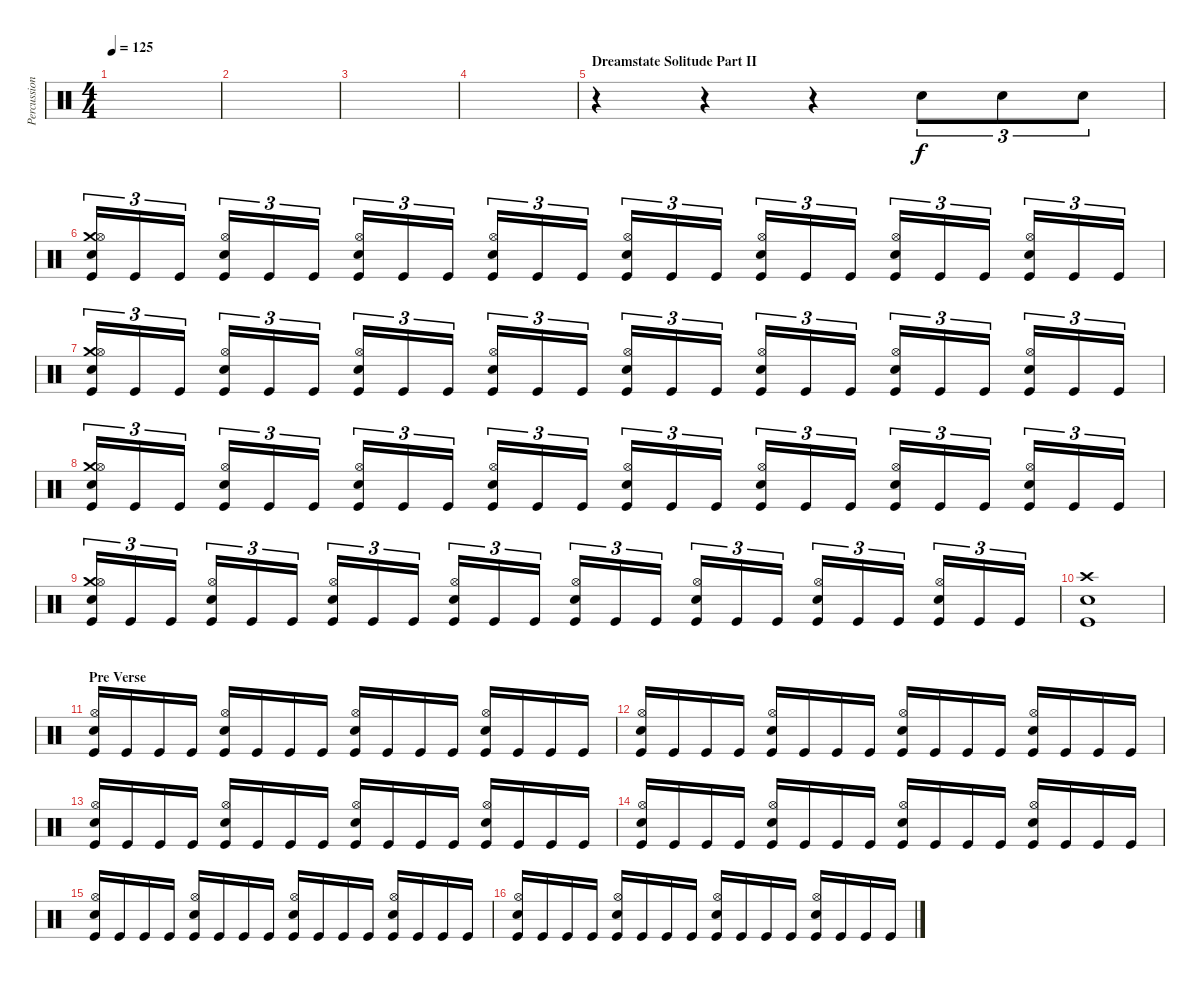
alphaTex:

\track ("Percussion" "Percussion") {instrument percussion}
\staff {score}
\articulation defaults
\ts (4 4)
\tempo 125
\clef neutral
\ks c
|
|
|
|
\section ("" "Dreamstate Solitude Part II")
r.4 r.4 r.4 "Electric Snare (hit)".8{tu (3 2)} "Electric Snare (hit)".8{tu (3 2)} "Electric Snare (hit)".8{tu (3 2)} |
("Crash medium (hit)" "Electric Snare (hit)" "Hi-Hat (open)" "Kick (hit)").16{tu (3 2)} "Kick (hit)".16{tu (3 2)} "Kick (hit)".16{tu (3 2)} ("Electric Snare (hit)" "Hi-Hat (open)" "Kick (hit)").16{tu (3 2)} "Kick (hit)".16{tu (3 2)} "Kick (hit)".16{tu (3 2)} ("Electric Snare (hit)" "Hi-Hat (open)" "Kick (hit)").16{tu (3 2)} "Kick (hit)".16{tu (3 2)} "Kick (hit)".16{tu (3 2)} ("Electric Snare (hit)" "Hi-Hat (open)" "Kick (hit)").16{tu (3 2)} "Kick (hit)".16{tu (3 2)} "Kick (hit)".16{tu (3 2)} ("Electric Snare (hit)" "Hi-Hat (open)" "Kick (hit)").16{tu (3 2)} "Kick (hit)".16{tu (3 2)} "Kick (hit)".16{tu (3 2)} ("Electric Snare (hit)" "Hi-Hat (open)" "Kick (hit)").16{tu (3 2)} "Kick (hit)".16{tu (3 2)} "Kick (hit)".16{tu (3 2)} ("Electric Snare (hit)" "Hi-Hat (open)" "Kick (hit)").16{tu (3 2)} "Kick (hit)".16{tu (3 2)} "Kick (hit)".16{tu (3 2)} ("Electric Snare (hit)" "Hi-Hat (open)" "Kick (hit)").16{tu (3 2)} "Kick (hit)".16{tu (3 2)} "Kick (hit)".16{tu (3 2)} |
("Crash medium (hit)" "Electric Snare (hit)" "Hi-Hat (open)" "Kick (hit)").16{tu (3 2)} "Kick (hit)".16{tu (3 2)} "Kick (hit)".16{tu (3 2)} ("Electric Snare (hit)" "Hi-Hat (open)" "Kick (hit)").16{tu (3 2)} "Kick (hit)".16{tu (3 2)} "Kick (hit)".16{tu (3 2)} ("Electric Snare (hit)" "Hi-Hat (open)" "Kick (hit)").16{tu (3 2)} "Kick (hit)".16{tu (3 2)} "Kick (hit)".16{tu (3 2)} ("Electric Snare (hit)" "Hi-Hat (open)" "Kick (hit)").16{tu (3 2)} "Kick (hit)".16{tu (3 2)} "Kick (hit)".16{tu (3 2)} ("Electric Snare (hit)" "Hi-Hat (open)" "Kick (hit)").16{tu (3 2)} "Kick (hit)".16{tu (3 2)} "Kick (hit)".16{tu (3 2)} ("Electric Snare (hit)" "Hi-Hat (open)" "Kick (hit)").16{tu (3 2)} "Kick (hit)".16{tu (3 2)} "Kick (hit)".16{tu (3 2)} ("Electric Snare (hit)" "Hi-Hat (open)" "Kick (hit)").16{tu (3 2)} "Kick (hit)".16{tu (3 2)} "Kick (hit)".16{tu (3 2)} ("Electric Snare (hit)" "Hi-Hat (open)" "Kick (hit)").16{tu (3 2)} "Kick (hit)".16{tu (3 2)} "Kick (hit)".16{tu (3 2)} |
("Crash medium (hit)" "Electric Snare (hit)" "Hi-Hat (open)" "Kick (hit)").16{tu (3 2)} "Kick (hit)".16{tu (3 2)} "Kick (hit)".16{tu (3 2)} ("Electric Snare (hit)" "Hi-Hat (open)" "Kick (hit)").16{tu (3 2)} "Kick (hit)".16{tu (3 2)} "Kick (hit)".16{tu (3 2)} ("Electric Snare (hit)" "Hi-Hat (open)" "Kick (hit)").16{tu (3 2)} "Kick (hit)".16{tu (3 2)} "Kick (hit)".16{tu (3 2)} ("Electric Snare (hit)" "Hi-Hat (open)" "Kick (hit)").16{tu (3 2)} "Kick (hit)".16{tu (3 2)} "Kick (hit)".16{tu (3 2)} ("Electric Snare (hit)" "Hi-Hat (open)" "Kick (hit)").16{tu (3 2)} "Kick (hit)".16{tu (3 2)} "Kick (hit)".16{tu (3 2)} ("Electric Snare (hit)" "Hi-Hat (open)" "Kick (hit)").16{tu (3 2)} "Kick (hit)".16{tu (3 2)} "Kick (hit)".16{tu (3 2)} ("Electric Snare (hit)" "Hi-Hat (open)" "Kick (hit)").16{tu (3 2)} "Kick (hit)".16{tu (3 2)} "Kick (hit)".16{tu (3 2)} ("Electric Snare (hit)" "Hi-Hat (open)" "Kick (hit)").16{tu (3 2)} "Kick (hit)".16{tu (3 2)} "Kick (hit)".16{tu (3 2)} |
("Crash medium (hit)" "Electric Snare (hit)" "Hi-Hat (open)" "Kick (hit)").16{tu (3 2)} "Kick (hit)".16{tu (3 2)} "Kick (hit)".16{tu (3 2)} ("Electric Snare (hit)" "Hi-Hat (open)" "Kick (hit)").16{tu (3 2)} "Kick (hit)".16{tu (3 2)} "Kick (hit)".16{tu (3 2)} ("Electric Snare (hit)" "Hi-Hat (open)" "Kick (hit)").16{tu (3 2)} "Kick (hit)".16{tu (3 2)} "Kick (hit)".16{tu (3 2)} ("Electric Snare (hit)" "Hi-Hat (open)" "Kick (hit)").16{tu (3 2)} "Kick (hit)".16{tu (3 2)} "Kick (hit)".16{tu (3 2)} ("Electric Snare (hit)" "Hi-Hat (open)" "Kick (hit)").16{tu (3 2)} "Kick (hit)".16{tu (3 2)} "Kick (hit)".16{tu (3 2)} ("Electric Snare (hit)" "Hi-Hat (open)" "Kick (hit)").16{tu (3 2)} "Kick (hit)".16{tu (3 2)} "Kick (hit)".16{tu (3 2)} ("Electric Snare (hit)" "Hi-Hat (open)" "Kick (hit)").16{tu (3 2)} "Kick (hit)".16{tu (3 2)} "Kick (hit)".16{tu (3 2)} ("Electric Snare (hit)" "Hi-Hat (open)" "Kick (hit)").16{tu (3 2)} "Kick (hit)".16{tu (3 2)} "Kick (hit)".16{tu (3 2)} |
("Crash high (hit)" "Electric Snare (hit)" "Kick (hit)").1 |
\section ("" "Pre Verse")
("Kick (hit)" "Electric Snare (hit)" "Hi-Hat (open)").16 "Kick (hit)".16 "Kick (hit)".16 "Kick (hit)".16 ("Kick (hit)" "Electric Snare (hit)" "Hi-Hat (open)").16 "Kick (hit)".16 "Kick (hit)".16 "Kick (hit)".16 ("Kick (hit)" "Electric Snare (hit)" "Hi-Hat (open)").16 "Kick (hit)".16 "Kick (hit)".16 "Kick (hit)".16 ("Kick (hit)" "Electric Snare (hit)" "Hi-Hat (open)").16 "Kick (hit)".16 "Kick (hit)".16 "Kick (hit)".16 |
("Kick (hit)" "Electric Snare (hit)" "Hi-Hat (open)").16 "Kick (hit)".16 "Kick (hit)".16 "Kick (hit)".16 ("Kick (hit)" "Electric Snare (hit)" "Hi-Hat (open)").16 "Kick (hit)".16 "Kick (hit)".16 "Kick (hit)".16 ("Kick (hit)" "Electric Snare (hit)" "Hi-Hat (open)").16 "Kick (hit)".16 "Kick (hit)".16 "Kick (hit)".16 ("Kick (hit)" "Electric Snare (hit)" "Hi-Hat (open)").16 "Kick (hit)".16 "Kick (hit)".16 "Kick (hit)".16 |
("Kick (hit)" "Electric Snare (hit)" "Hi-Hat (open)").16 "Kick (hit)".16 "Kick (hit)".16 "Kick (hit)".16 ("Kick (hit)" "Electric Snare (hit)" "Hi-Hat (open)").16 "Kick (hit)".16 "Kick (hit)".16 "Kick (hit)".16 ("Kick (hit)" "Electric Snare (hit)" "Hi-Hat (open)").16 "Kick (hit)".16 "Kick (hit)".16 "Kick (hit)".16 ("Kick (hit)" "Electric Snare (hit)" "Hi-Hat (open)").16 "Kick (hit)".16 "Kick (hit)".16 "Kick (hit)".16 |
("Kick (hit)" "Electric Snare (hit)" "Hi-Hat (open)").16 "Kick (hit)".16 "Kick (hit)".16 "Kick (hit)".16 ("Kick (hit)" "Electric Snare (hit)" "Hi-Hat (open)").16 "Kick (hit)".16 "Kick (hit)".16 "Kick (hit)".16 ("Kick (hit)" "Electric Snare (hit)" "Hi-Hat (open)").16 "Kick (hit)".16 "Kick (hit)".16 "Kick (hit)".16 ("Kick (hit)" "Electric Snare (hit)" "Hi-Hat (open)").16 "Kick (hit)".16 "Kick (hit)".16 "Kick (hit)".16 |
("Kick (hit)" "Electric Snare (hit)" "Hi-Hat (open)").16 "Kick (hit)".16 "Kick (hit)".16 "Kick (hit)".16 ("Kick (hit)" "Electric Snare (hit)" "Hi-Hat (open)").16 "Kick (hit)".16 "Kick (hit)".16 "Kick (hit)".16 ("Kick (hit)" "Electric Snare (hit)" "Hi-Hat (open)").16 "Kick (hit)".16 "Kick (hit)".16 "Kick (hit)".16 ("Kick (hit)" "Electric Snare (hit)" "Hi-Hat (open)").16 "Kick (hit)".16 "Kick (hit)".16 "Kick (hit)".16 |
("Kick (hit)" "Electric Snare (hit)" "Hi-Hat (open)").16 "Kick (hit)".16 "Kick (hit)".16 "Kick (hit)".16 ("Kick (hit)" "Electric Snare (hit)" "Hi-Hat (open)").16 "Kick (hit)".16 "Kick (hit)".16 "Kick (hit)".16 ("Kick (hit)" "Electric Snare (hit)" "Hi-Hat (open)").16 "Kick (hit)".16 "Kick (hit)".16 "Kick (hit)".16 ("Kick (hit)" "Electric Snare (hit)" "Hi-Hat (open)").16 "Kick (hit)".16 "Kick (hit)".16 "Kick (hit)".16
